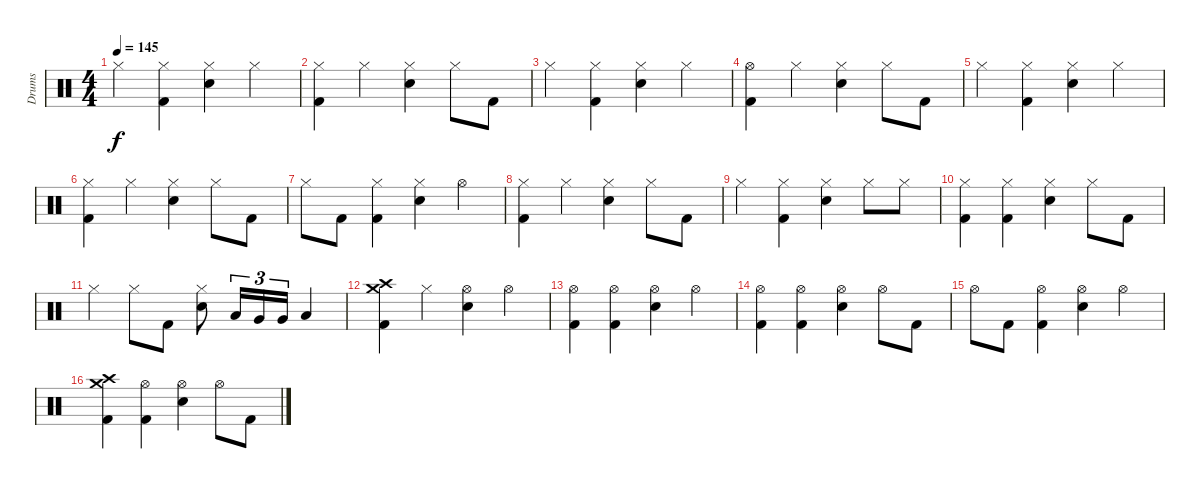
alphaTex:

\track ("Drums" "Drums") {instrument percussion}
\staff {score}
\articulation defaults
\ts (4 4)
\tempo 145
\clef neutral
\ks c "Hi-Hat (closed)".4{dy f}
("Hi-Hat (closed)" "Kick (hit) 2").4 ("Hi-Hat (closed)" "Electric Snare (hit)").4 "Hi-Hat (closed)".4 |
("Hi-Hat (closed)" "Kick (hit) 2").4 "Hi-Hat (closed)".4 ("Hi-Hat (closed)" "Electric Snare (hit)").4 "Hi-Hat (closed)".8 "Kick (hit) 2".8 |
"Hi-Hat (closed)".4 ("Hi-Hat (closed)" "Kick (hit) 2").4 ("Hi-Hat (closed)" "Electric Snare (hit)").4 "Hi-Hat (closed)".4 |
("Hi-Hat (open)" "Kick (hit) 2").4 "Hi-Hat (closed)".4 ("Hi-Hat (closed)" "Electric Snare (hit)").4 "Hi-Hat (closed)".8 "Kick (hit) 2".8 |
"Hi-Hat (closed)".4 ("Hi-Hat (closed)" "Kick (hit) 2").4 ("Hi-Hat (closed)" "Electric Snare (hit)").4 "Hi-Hat (closed)".4 |
("Hi-Hat (closed)" "Kick (hit) 2").4 "Hi-Hat (closed)".4 ("Hi-Hat (closed)" "Electric Snare (hit)").4 "Hi-Hat (closed)".8 "Kick (hit) 2".8 |
"Hi-Hat (closed)".8 "Kick (hit) 2".8 ("Hi-Hat (closed)" "Kick (hit) 2").4 ("Hi-Hat (closed)" "Electric Snare (hit)").4 "Hi-Hat (open)".4 |
("Hi-Hat (closed)" "Kick (hit) 2").4 "Hi-Hat (closed)".4 ("Hi-Hat (closed)" "Electric Snare (hit)").4 "Hi-Hat (closed)".8 "Kick (hit) 2".8 |
"Hi-Hat (closed)".4 ("Hi-Hat (closed)" "Kick (hit) 2").4 ("Hi-Hat (closed)" "Electric Snare (hit)").4 "Hi-Hat (closed)".8 "Hi-Hat (closed)".8 |
("Hi-Hat (closed)" "Kick (hit) 2").4 ("Hi-Hat (closed)" "Kick (hit) 2").4 ("Hi-Hat (closed)" "Electric Snare (hit)").4 "Hi-Hat (closed)".8 "Kick (hit) 2".8 |
"Hi-Hat (closed)".4 "Hi-Hat (closed)".8 "Kick (hit) 2".8 ("Hi-Hat (closed)" "Electric Snare (hit)").8 "Low Tom (hit)".16{tu (3 2)} "Very Low Tom (hit)".16{tu (3 2)} "Very Low Tom (hit)".16{tu (3 2)} "Low Floor Tom (hit)".4 |
("Crash medium (hit)" "Crash high (hit)" "Kick (hit) 2").4 "Hi-Hat (closed)".4 ("Hi-Hat (open)" "Electric Snare (hit)").4 "Hi-Hat (open)".4 |
("Hi-Hat (open)" "Kick (hit) 2").4 ("Hi-Hat (open)" "Kick (hit) 2").4 ("Hi-Hat (open)" "Electric Snare (hit)").4 "Hi-Hat (open)".4 |
("Hi-Hat (open)" "Kick (hit) 2").4 ("Hi-Hat (open)" "Kick (hit) 2").4 ("Hi-Hat (open)" "Electric Snare (hit)").4 "Hi-Hat (open)".8 "Kick (hit) 2".8 |
"Hi-Hat (open)".8 "Kick (hit) 2".8 ("Hi-Hat (open)" "Kick (hit) 2").4 ("Hi-Hat (open)" "Electric Snare (hit)").4 "Hi-Hat (open)".4 |
("Crash medium (hit)" "Crash high (hit)" "Kick (hit) 2").4 ("Hi-Hat (open)" "Kick (hit) 2").4 ("Hi-Hat (open)" "Electric Snare (hit)").4 "Hi-Hat (open)".8 "Kick (hit) 2".8
